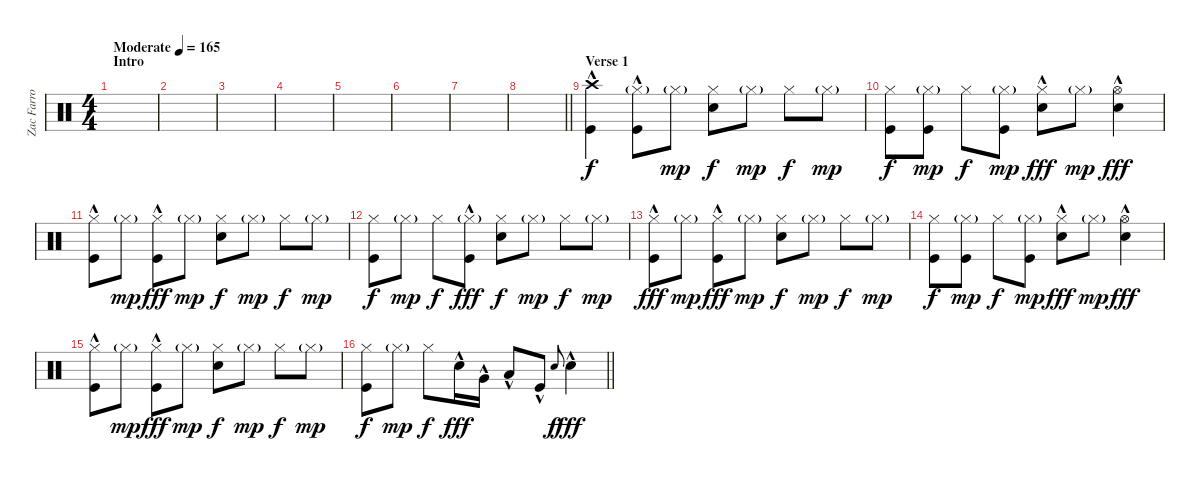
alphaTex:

\track ("Zac Farro (Drums)" "Zac Farro ") {instrument percussion}
\staff {score}
\articulation defaults
\ts (4 4)
\section ("" "Intro")
\tempo (165 "Moderate")
\clef neutral
\ks c
|
|
|
|
|
|
|
\barLineRight lightlight
|
\section ("" "Verse 1")
("Crash high (hit)"{hac} "Kick (hit)"{hac}).4 ("Hi-Hat (closed)"{g} "Kick (hit)"{hac}).8 "Hi-Hat (closed)"{g}.8{dy mp} ("Hi-Hat (closed)" "Electric Snare (hit)").8{dy f} "Hi-Hat (closed)"{g}.8{dy mp} "Hi-Hat (closed)".8{dy f} "Hi-Hat (closed)"{g}.8{dy mp} |
("Hi-Hat (closed)" "Kick (hit)").8{dy f} ("Hi-Hat (closed)"{g} "Kick (hit)").8{dy mp} "Hi-Hat (closed)".8{dy f} ("Hi-Hat (closed)"{g} "Kick (hit)").8{dy mp} ("Hi-Hat (closed)" "Electric Snare (hit)"{hac}).8{dy fff} "Hi-Hat (closed)"{g}.8{dy mp} ("Hi-Hat (open)"{hac} "Electric Snare (hit)"{hac}).4{dy fff} |
("Hi-Hat (closed)" "Kick (hit)"{hac}).8 "Hi-Hat (closed)"{g}.8{dy mp} ("Hi-Hat (closed)" "Kick (hit)"{hac}).8{dy fff} "Hi-Hat (closed)"{g}.8{dy mp} ("Hi-Hat (closed)" "Electric Snare (hit)").8{dy f} "Hi-Hat (closed)"{g}.8{dy mp} "Hi-Hat (closed)".8{dy f} "Hi-Hat (closed)"{g}.8{dy mp} |
("Hi-Hat (closed)" "Kick (hit)").8{dy f} "Hi-Hat (closed)"{g}.8{dy mp} "Hi-Hat (closed)".8{dy f} ("Hi-Hat (closed)"{g} "Kick (hit)"{hac}).8{dy fff} ("Hi-Hat (closed)" "Electric Snare (hit)").8{dy f} "Hi-Hat (closed)"{g}.8{dy mp} "Hi-Hat (closed)".8{dy f} "Hi-Hat (closed)"{g}.8{dy mp} |
("Hi-Hat (closed)" "Kick (hit)"{hac}).8{dy fff} "Hi-Hat (closed)"{g}.8{dy mp} ("Hi-Hat (closed)" "Kick (hit)"{hac}).8{dy fff} "Hi-Hat (closed)"{g}.8{dy mp} ("Hi-Hat (closed)" "Electric Snare (hit)").8{dy f} "Hi-Hat (closed)"{g}.8{dy mp} "Hi-Hat (closed)".8{dy f} "Hi-Hat (closed)"{g}.8{dy mp} |
("Hi-Hat (closed)" "Kick (hit)").8{dy f} ("Hi-Hat (closed)"{g} "Kick (hit)").8{dy mp} "Hi-Hat (closed)".8{dy f} ("Hi-Hat (closed)"{g} "Kick (hit)").8{dy mp} ("Hi-Hat (closed)" "Electric Snare (hit)"{hac}).8{dy fff} "Hi-Hat (closed)"{g}.8{dy mp} ("Hi-Hat (open)"{hac} "Electric Snare (hit)"{hac}).4{dy fff} |
("Hi-Hat (closed)" "Kick (hit)"{hac}).8 "Hi-Hat (closed)"{g}.8{dy mp} ("Hi-Hat (closed)" "Kick (hit)"{hac}).8{dy fff} "Hi-Hat (closed)"{g}.8{dy mp} ("Hi-Hat (closed)" "Electric Snare (hit)").8{dy f} "Hi-Hat (closed)"{g}.8{dy mp} "Hi-Hat (closed)".8{dy f} "Hi-Hat (closed)"{g}.8{dy mp} |
\barLineRight lightlight
("Hi-Hat (closed)" "Kick (hit)").8{dy f} "Hi-Hat (closed)"{g}.8{dy mp} "Hi-Hat (closed)".8{dy f} "Electric Snare (hit)"{hac}.16{dy fff} "Very Low Tom (hit)"{hac}.16 "Low Floor Tom (hit)"{hac}.8 "Kick (hit)"{hac}.8 "Electric Snare (hit)".8{gr onbeat dy f} "Electric Snare (hit)"{hac}.4{dy fff}
